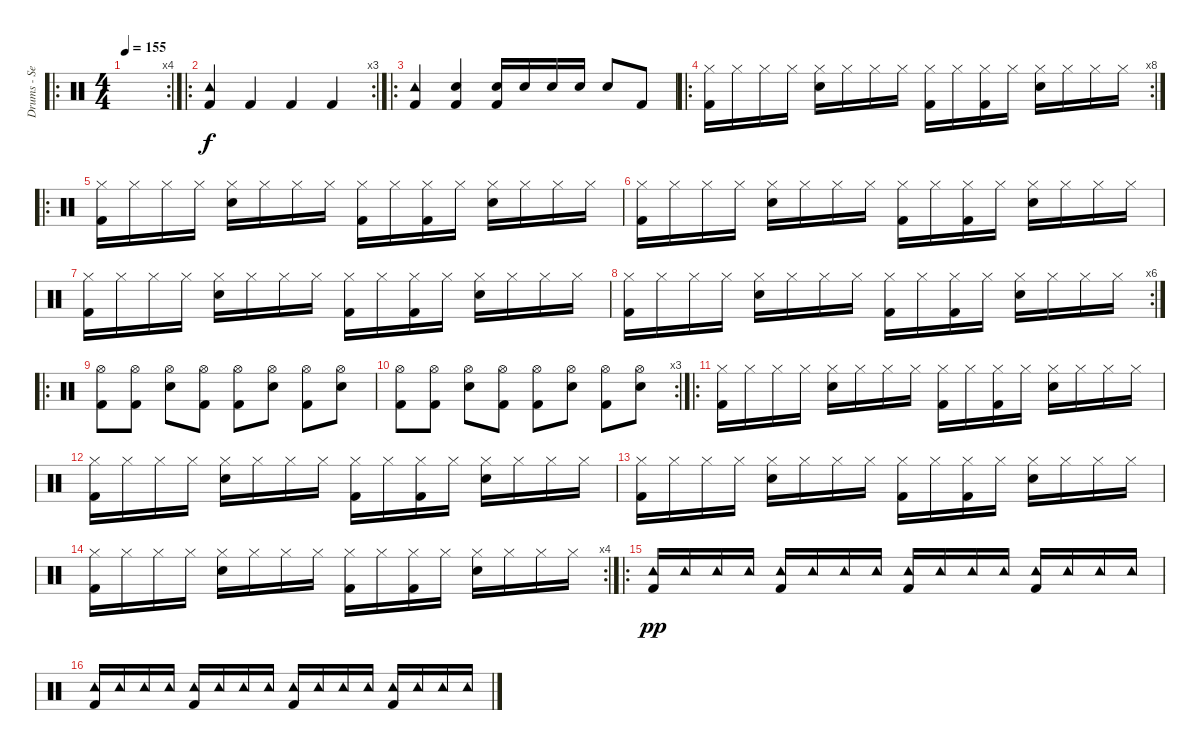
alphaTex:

\track ("Drums - Sebastien" "Drums - Se") {instrument percussion}
\staff {score}
\articulation defaults
\ro
\rc 4
\ts (4 4)
\tempo 155
\clef neutral
\ks c
|
\ro
\rc 3
("Tambourine (hit)" "Kick (hit) 2").4 "Kick (hit) 2".4 "Kick (hit) 2".4 "Kick (hit) 2".4 |
\ro
("Tambourine (hit)" "Kick (hit) 2").4 ("Snare (hit) 2" "Kick (hit) 2").4 ("Snare (hit) 2" "Kick (hit) 2").16 "Snare (hit) 2".16 "Snare (hit) 2".16 "Snare (hit) 2".16 "Snare (hit) 2".8 "Kick (hit) 2".8 |
\ro
\rc 8
("Hi-Hat (closed)" "Kick (hit) 2").16 "Hi-Hat (closed)".16 "Hi-Hat (closed)".16 "Hi-Hat (closed)".16 ("Hi-Hat (closed)" "Snare (hit) 2").16 "Hi-Hat (closed)".16 "Hi-Hat (closed)".16 "Hi-Hat (closed)".16 ("Hi-Hat (closed)" "Kick (hit) 2").16 "Hi-Hat (closed)".16 ("Hi-Hat (closed)" "Kick (hit) 2").16 "Hi-Hat (closed)".16 ("Hi-Hat (closed)" "Snare (hit) 2").16 "Hi-Hat (closed)".16 "Hi-Hat (closed)".16 "Hi-Hat (closed)".16 |
\ro
("Hi-Hat (closed)" "Kick (hit) 2").16 "Hi-Hat (closed)".16 "Hi-Hat (closed)".16 "Hi-Hat (closed)".16 ("Hi-Hat (closed)" "Snare (hit) 2").16 "Hi-Hat (closed)".16 "Hi-Hat (closed)".16 "Hi-Hat (closed)".16 ("Hi-Hat (closed)" "Kick (hit) 2").16 "Hi-Hat (closed)".16 ("Hi-Hat (closed)" "Kick (hit) 2").16 "Hi-Hat (closed)".16 ("Hi-Hat (closed)" "Snare (hit) 2").16 "Hi-Hat (closed)".16 "Hi-Hat (closed)".16 "Hi-Hat (closed)".16 |
("Hi-Hat (closed)" "Kick (hit) 2").16 "Hi-Hat (closed)".16 "Hi-Hat (closed)".16 "Hi-Hat (closed)".16 ("Hi-Hat (closed)" "Snare (hit) 2").16 "Hi-Hat (closed)".16 "Hi-Hat (closed)".16 "Hi-Hat (closed)".16 ("Hi-Hat (closed)" "Kick (hit) 2").16 "Hi-Hat (closed)".16 ("Hi-Hat (closed)" "Kick (hit) 2").16 "Hi-Hat (closed)".16 ("Hi-Hat (closed)" "Snare (hit) 2").16 "Hi-Hat (closed)".16 "Hi-Hat (closed)".16 "Hi-Hat (closed)".16 |
("Hi-Hat (closed)" "Kick (hit) 2").16 "Hi-Hat (closed)".16 "Hi-Hat (closed)".16 "Hi-Hat (closed)".16 ("Hi-Hat (closed)" "Snare (hit) 2").16 "Hi-Hat (closed)".16 "Hi-Hat (closed)".16 "Hi-Hat (closed)".16 ("Hi-Hat (closed)" "Kick (hit) 2").16 "Hi-Hat (closed)".16 ("Hi-Hat (closed)" "Kick (hit) 2").16 "Hi-Hat (closed)".16 ("Hi-Hat (closed)" "Snare (hit) 2").16 "Hi-Hat (closed)".16 "Hi-Hat (closed)".16 "Hi-Hat (closed)".16 |
\rc 6
("Hi-Hat (closed)" "Kick (hit) 2").16 "Hi-Hat (closed)".16 "Hi-Hat (closed)".16 "Hi-Hat (closed)".16 ("Hi-Hat (closed)" "Snare (hit) 2").16 "Hi-Hat (closed)".16 "Hi-Hat (closed)".16 "Hi-Hat (closed)".16 ("Hi-Hat (closed)" "Kick (hit) 2").16 "Hi-Hat (closed)".16 ("Hi-Hat (closed)" "Kick (hit) 2").16 "Hi-Hat (closed)".16 ("Hi-Hat (closed)" "Snare (hit) 2").16 "Hi-Hat (closed)".16 "Hi-Hat (closed)".16 "Hi-Hat (closed)".16 |
\ro
("Hi-Hat (open)" "Kick (hit) 2").8 ("Hi-Hat (open)" "Kick (hit) 2").8 ("Hi-Hat (open)" "Snare (hit) 2").8 ("Hi-Hat (open)" "Kick (hit) 2").8 ("Hi-Hat (open)" "Kick (hit) 2").8 ("Hi-Hat (open)" "Snare (hit) 2").8 ("Hi-Hat (open)" "Kick (hit) 2").8 ("Hi-Hat (open)" "Snare (hit) 2").8 |
\rc 3
("Hi-Hat (open)" "Kick (hit) 2").8 ("Hi-Hat (open)" "Kick (hit) 2").8 ("Hi-Hat (open)" "Snare (hit) 2").8 ("Hi-Hat (open)" "Kick (hit) 2").8 ("Hi-Hat (open)" "Kick (hit) 2").8 ("Hi-Hat (open)" "Snare (hit) 2").8 ("Hi-Hat (open)" "Kick (hit) 2").8 ("Hi-Hat (open)" "Snare (hit) 2").8 |
\ro
("Hi-Hat (closed)" "Kick (hit) 2").16 "Hi-Hat (closed)".16 "Hi-Hat (closed)".16 "Hi-Hat (closed)".16 ("Hi-Hat (closed)" "Snare (hit) 2").16 "Hi-Hat (closed)".16 "Hi-Hat (closed)".16 "Hi-Hat (closed)".16 ("Hi-Hat (closed)" "Kick (hit) 2").16 "Hi-Hat (closed)".16 ("Hi-Hat (closed)" "Kick (hit) 2").16 "Hi-Hat (closed)".16 ("Hi-Hat (closed)" "Snare (hit) 2").16 "Hi-Hat (closed)".16 "Hi-Hat (closed)".16 "Hi-Hat (closed)".16 |
("Hi-Hat (closed)" "Kick (hit) 2").16 "Hi-Hat (closed)".16 "Hi-Hat (closed)".16 "Hi-Hat (closed)".16 ("Hi-Hat (closed)" "Snare (hit) 2").16 "Hi-Hat (closed)".16 "Hi-Hat (closed)".16 "Hi-Hat (closed)".16 ("Hi-Hat (closed)" "Kick (hit) 2").16 "Hi-Hat (closed)".16 ("Hi-Hat (closed)" "Kick (hit) 2").16 "Hi-Hat (closed)".16 ("Hi-Hat (closed)" "Snare (hit) 2").16 "Hi-Hat (closed)".16 "Hi-Hat (closed)".16 "Hi-Hat (closed)".16 |
("Hi-Hat (closed)" "Kick (hit) 2").16 "Hi-Hat (closed)".16 "Hi-Hat (closed)".16 "Hi-Hat (closed)".16 ("Hi-Hat (closed)" "Snare (hit) 2").16 "Hi-Hat (closed)".16 "Hi-Hat (closed)".16 "Hi-Hat (closed)".16 ("Hi-Hat (closed)" "Kick (hit) 2").16 "Hi-Hat (closed)".16 ("Hi-Hat (closed)" "Kick (hit) 2").16 "Hi-Hat (closed)".16 ("Hi-Hat (closed)" "Snare (hit) 2").16 "Hi-Hat (closed)".16 "Hi-Hat (closed)".16 "Hi-Hat (closed)".16 |
\rc 4
("Hi-Hat (closed)" "Kick (hit) 2").16 "Hi-Hat (closed)".16 "Hi-Hat (closed)".16 "Hi-Hat (closed)".16 ("Hi-Hat (closed)" "Snare (hit) 2").16 "Hi-Hat (closed)".16 "Hi-Hat (closed)".16 "Hi-Hat (closed)".16 ("Hi-Hat (closed)" "Kick (hit) 2").16 "Hi-Hat (closed)".16 ("Hi-Hat (closed)" "Kick (hit) 2").16 "Hi-Hat (closed)".16 ("Hi-Hat (closed)" "Snare (hit) 2").16 "Hi-Hat (closed)".16 "Hi-Hat (closed)".16 "Hi-Hat (closed)".16 |
\ro
("Tambourine (hit)" "Kick (hit) 2").16{dy pp} "Tambourine (hit)".16 "Tambourine (hit)".16 "Tambourine (hit)".16 ("Tambourine (hit)" "Kick (hit) 2").16 "Tambourine (hit)".16 "Tambourine (hit)".16 "Tambourine (hit)".16 ("Tambourine (hit)" "Kick (hit) 2").16 "Tambourine (hit)".16 "Tambourine (hit)".16 "Tambourine (hit)".16 ("Tambourine (hit)" "Kick (hit) 2").16 "Tambourine (hit)".16 "Tambourine (hit)".16 "Tambourine (hit)".16 |
("Tambourine (hit)" "Kick (hit) 2").16 "Tambourine (hit)".16 "Tambourine (hit)".16 "Tambourine (hit)".16 ("Tambourine (hit)" "Kick (hit) 2").16 "Tambourine (hit)".16 "Tambourine (hit)".16 "Tambourine (hit)".16 ("Tambourine (hit)" "Kick (hit) 2").16 "Tambourine (hit)".16 "Tambourine (hit)".16 "Tambourine (hit)".16 ("Tambourine (hit)" "Kick (hit) 2").16 "Tambourine (hit)".16 "Tambourine (hit)".16 "Tambourine (hit)".16
